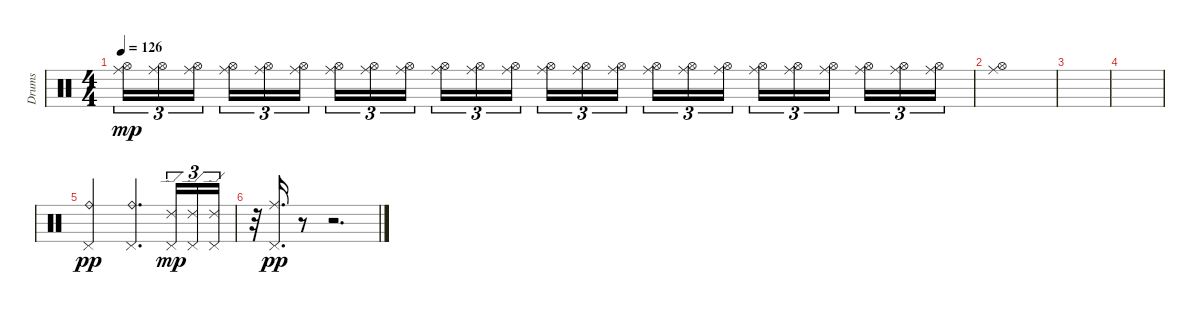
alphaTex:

\track ("Drums" "Drums") {instrument percussion}
\staff {score}
\articulation defaults
\ts (4 4)
\tempo 126
\clef neutral
\ks c
("Hi-Hat (open)" "Ride (middle)").16{tu (3 2) dy mp volume 3} ("Hi-Hat (open)" "Ride (middle)").16{tu (3 2)} ("Hi-Hat (open)" "Ride (middle)").16{tu (3 2) beam splitsecondary} ("Hi-Hat (open)" "Ride (middle)").16{tu (3 2)} ("Hi-Hat (open)" "Ride (middle)").16{tu (3 2)} ("Hi-Hat (open)" "Ride (middle)").16{tu (3 2)} ("Hi-Hat (open)" "Ride (middle)").16{tu (3 2) volume 8} ("Hi-Hat (open)" "Ride (middle)").16{tu (3 2)} ("Hi-Hat (open)" "Ride (middle)").16{tu (3 2) beam splitsecondary} ("Hi-Hat (open)" "Ride (middle)").16{tu (3 2)} ("Hi-Hat (open)" "Ride (middle)").16{tu (3 2)} ("Hi-Hat (open)" "Ride (middle)").16{tu (3 2)} ("Hi-Hat (open)" "Ride (middle)").16{tu (3 2) volume 9} ("Hi-Hat (open)" "Ride (middle)").16{tu (3 2)} ("Hi-Hat (open)" "Ride (middle)").16{tu (3 2) beam splitsecondary} ("Hi-Hat (open)" "Ride (middle)").16{tu (3 2)} ("Hi-Hat (open)" "Ride (middle)").16{tu (3 2)} ("Hi-Hat (open)" "Ride (middle)").16{tu (3 2)} ("Hi-Hat (open)" "Ride (middle)").16{tu (3 2) volume 12} ("Hi-Hat (open)" "Ride (middle)").16{tu (3 2)} ("Hi-Hat (open)" "Ride (middle)").16{tu (3 2) beam splitsecondary} ("Hi-Hat (open)" "Ride (middle)").16{tu (3 2)} ("Hi-Hat (open)" "Ride (middle)").16{tu (3 2)} ("Hi-Hat (open)" "Ride (middle)").16{tu (3 2)} |
("Hi-Hat (open)" "Ride (middle)").1{volume 14} |
|
|
("Ride (bell)" "Pedal Hi-Hat (hit)").2{dy pp} ("Ride (bell)" "Pedal Hi-Hat (hit)").4{d} ("Pedal Hi-Hat (hit)" "Ride (edge) 2").16{tu (3 2) dy mp} ("Pedal Hi-Hat (hit)" "Ride (edge) 2").16{tu (3 2)} ("Pedal Hi-Hat (hit)" "Ride (edge) 2").16{tu (3 2)} |
r.32 ("Ride (middle)" "Pedal Hi-Hat (hit)").16{d dy pp} r.8 r.2{d}
